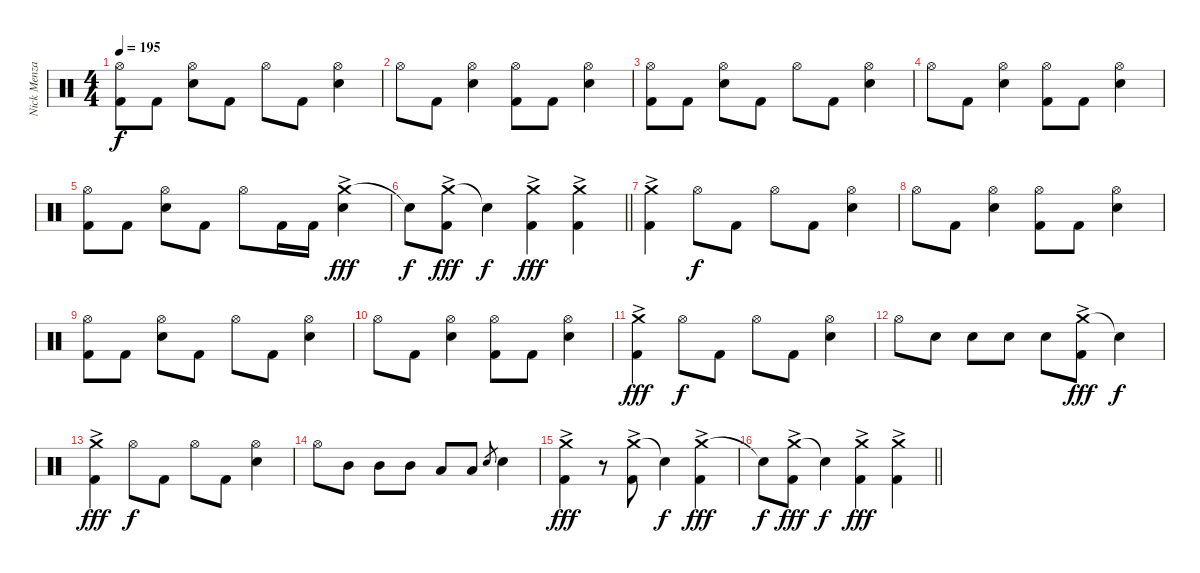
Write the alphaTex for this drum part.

\track ("Nick Menza" "Nick Menza") {instrument percussion}
\staff {score}
\articulation defaults
\ts (4 4)
\tempo 195
\clef neutral
\ks c
("Hi-Hat (open)" "Kick (hit) 2").8{dy f} "Kick (hit) 2".8 ("Hi-Hat (open)" "Snare (hit) 2").8 "Kick (hit) 2".8 "Hi-Hat (open)".8 "Kick (hit) 2".8 ("Hi-Hat (open)" "Snare (hit) 2").4 |
"Hi-Hat (open)".8 "Kick (hit) 2".8 ("Hi-Hat (open)" "Snare (hit) 2").4 ("Hi-Hat (open)" "Kick (hit) 2").8 "Kick (hit) 2".8 ("Hi-Hat (open)" "Snare (hit) 2").4 |
("Hi-Hat (open)" "Kick (hit) 2").8 "Kick (hit) 2".8 ("Hi-Hat (open)" "Snare (hit) 2").8 "Kick (hit) 2".8 "Hi-Hat (open)".8 "Kick (hit) 2".8 ("Hi-Hat (open)" "Snare (hit) 2").4 |
"Hi-Hat (open)".8 "Kick (hit) 2".8 ("Hi-Hat (open)" "Snare (hit) 2").4 ("Hi-Hat (open)" "Kick (hit) 2").8 "Kick (hit) 2".8 ("Hi-Hat (open)" "Snare (hit) 2").4 |
("Hi-Hat (open)" "Kick (hit) 2").8 "Kick (hit) 2".8 ("Hi-Hat (open)" "Snare (hit) 2").8 "Kick (hit) 2".8 "Hi-Hat (open)".8 "Kick (hit) 2".16 "Kick (hit) 2".16 ("Crash medium (hit)"{ac} "Snare (hit) 2").4{dy fff} |
\barLineRight lightlight "Snare (hit)"{t}.8{dy f}
("Crash medium (hit)"{ac} "Kick (hit) 2").8{dy fff} "Snare (hit)"{t}.4{dy f} ("Crash medium (hit)"{ac} "Kick (hit) 2").4{dy fff} ("Crash medium (hit)"{ac} "Kick (hit) 2").4 |
("Crash medium (hit)"{ac} "Kick (hit) 2").4 "Hi-Hat (open)".8{dy f} "Kick (hit) 2".8 "Hi-Hat (open)".8 "Kick (hit) 2".8 ("Hi-Hat (open)" "Snare (hit) 2").4 |
"Hi-Hat (open)".8 "Kick (hit) 2".8 ("Hi-Hat (open)" "Snare (hit) 2").4 ("Hi-Hat (open)" "Kick (hit) 2").8 "Kick (hit) 2".8 ("Hi-Hat (open)" "Snare (hit) 2").4 |
("Hi-Hat (open)" "Kick (hit) 2").8 "Kick (hit) 2".8 ("Hi-Hat (open)" "Snare (hit) 2").8 "Kick (hit) 2".8 "Hi-Hat (open)".8 "Kick (hit) 2".8 ("Hi-Hat (open)" "Snare (hit) 2").4 |
"Hi-Hat (open)".8 "Kick (hit) 2".8 ("Hi-Hat (open)" "Snare (hit) 2").4 ("Hi-Hat (open)" "Kick (hit) 2").8 "Kick (hit) 2".8 ("Hi-Hat (open)" "Snare (hit) 2").4 |
("Crash medium (hit)"{ac} "Kick (hit) 2").4{dy fff} "Hi-Hat (open)".8{dy f} "Kick (hit) 2".8 "Hi-Hat (open)".8 "Kick (hit) 2".8 ("Hi-Hat (open)" "Snare (hit) 2").4 |
"Hi-Hat (open)".8 "Snare (hit) 2".8 "Snare (hit) 2".8 "Snare (hit) 2".8 "Snare (hit) 2".8 ("Crash medium (hit)"{ac} "Kick (hit) 2").8{dy fff} "Snare (hit)"{t}.4{dy f} |
("Crash medium (hit)"{ac} "Kick (hit) 2").4{dy fff} "Hi-Hat (open)".8{dy f} "Kick (hit) 2".8 "Hi-Hat (open)".8 "Kick (hit) 2".8 ("Hi-Hat (open)" "Snare (hit) 2").4 |
"Hi-Hat (open)".8 "Mid Tom (hit)".8 "Mid Tom (hit)".8 "Mid Tom (hit)".8 "Low Tom (hit)".8 "Low Tom (hit)".8 "Snare (hit) 2".8{gr} "Snare (hit) 2".4 |
("Crash medium (hit)"{ac} "Kick (hit) 2").4{dy fff} r.8 ("Crash medium (hit)"{ac} "Kick (hit) 2").8 "Snare (hit)"{t}.4{dy f} ("Crash medium (hit)"{ac} "Kick (hit) 2").4{dy fff} |
\barLineRight lightlight "Snare (hit)"{t}.8{dy f}
("Crash medium (hit)"{ac} "Kick (hit) 2").8{dy fff} "Snare (hit)"{t}.4{dy f} ("Crash medium (hit)"{ac} "Kick (hit) 2").4{dy fff} ("Crash medium (hit)"{ac} "Kick (hit) 2").4
